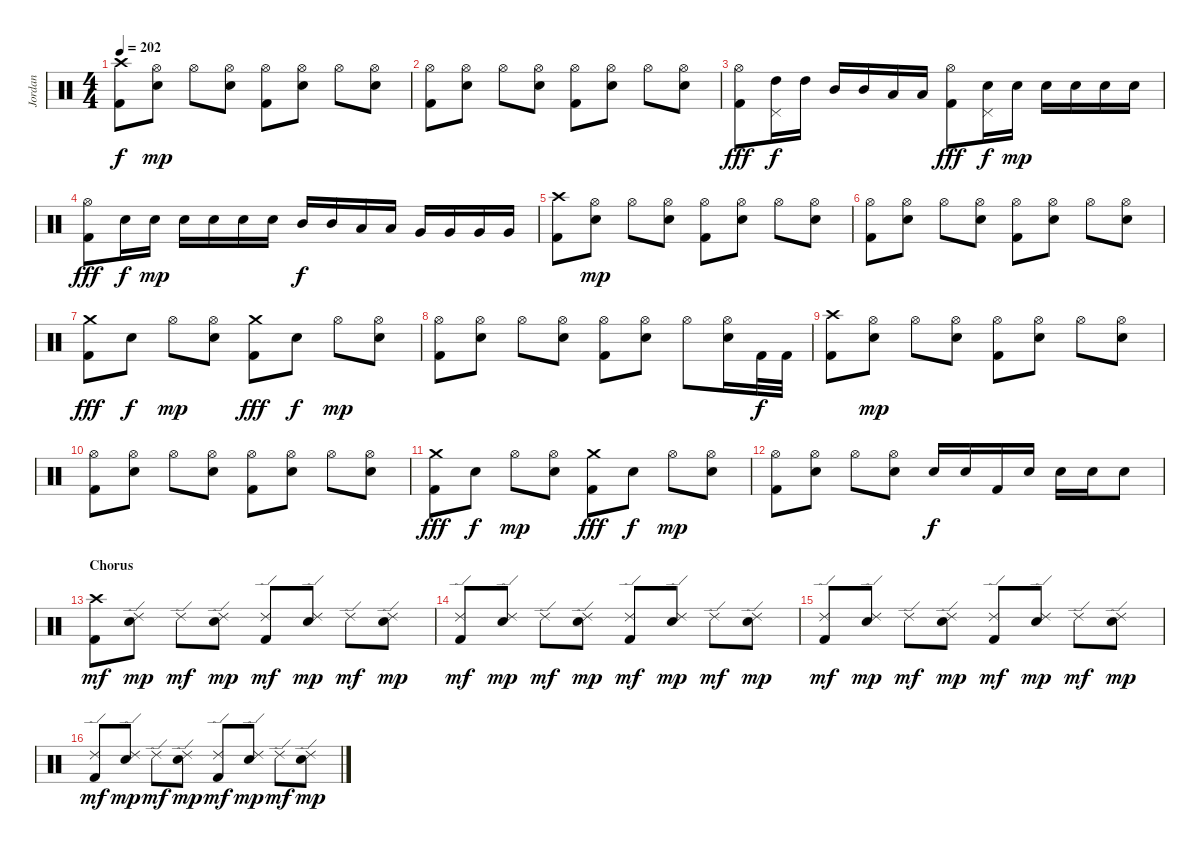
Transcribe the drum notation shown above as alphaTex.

\track ("Jordan" "Jordan") {instrument percussion}
\staff {score}
\articulation defaults
\ts (4 4)
\tempo 202
\clef neutral
\ks c
("Crash high (hit)" "Kick (hit) 2").8{dy f} ("Hi-Hat (open)" "Electric Snare (hit)").8{dy mp} "Hi-Hat (open)".8 ("Hi-Hat (open)" "Electric Snare (hit)").8 ("Hi-Hat (open)" "Kick (hit) 2").8 ("Hi-Hat (open)" "Electric Snare (hit)").8 "Hi-Hat (open)".8 ("Hi-Hat (open)" "Electric Snare (hit)").8 |
("Hi-Hat (open)" "Kick (hit) 2").8 ("Hi-Hat (open)" "Electric Snare (hit)").8 "Hi-Hat (open)".8 ("Hi-Hat (open)" "Electric Snare (hit)").8 ("Hi-Hat (open)" "Kick (hit) 2").8 ("Hi-Hat (open)" "Electric Snare (hit)").8 "Hi-Hat (open)".8 ("Hi-Hat (open)" "Electric Snare (hit)").8 |
("Hi-Hat (open)" "Kick (hit) 2").8{dy fff} ("High Tom (hit)" "Pedal Hi-Hat (hit)").16{dy f} "High Tom (hit)".16 "Mid Tom (hit)".16 "Mid Tom (hit)".16 "Low Tom (hit)".16 "Low Tom (hit)".16 ("Hi-Hat (open)" "Kick (hit) 2").8{dy fff} ("Electric Snare (hit)" "Pedal Hi-Hat (hit)").16{dy f} "Electric Snare (hit)".16{dy mp} "Electric Snare (hit)".16 "Electric Snare (hit)".16 "Electric Snare (hit)".16 "Electric Snare (hit)".16 |
("Hi-Hat (open)" "Kick (hit) 2").8{dy fff} "Electric Snare (hit)".16{dy f} "Electric Snare (hit)".16{dy mp} "Electric Snare (hit)".16 "Electric Snare (hit)".16 "Electric Snare (hit)".16 "Electric Snare (hit)".16 "Mid Tom (hit)".16{dy f} "Mid Tom (hit)".16 "Low Tom (hit)".16 "Low Tom (hit)".16 "Very Low Tom (hit)".16 "Very Low Tom (hit)".16 "Very Low Tom (hit)".16 "Very Low Tom (hit)".16 |
("Crash high (hit)" "Kick (hit) 2").8 ("Hi-Hat (open)" "Electric Snare (hit)").8{dy mp} "Hi-Hat (open)".8 ("Hi-Hat (open)" "Electric Snare (hit)").8 ("Hi-Hat (open)" "Kick (hit) 2").8 ("Hi-Hat (open)" "Electric Snare (hit)").8 "Hi-Hat (open)".8 ("Hi-Hat (open)" "Electric Snare (hit)").8 |
("Hi-Hat (open)" "Kick (hit) 2").8 ("Hi-Hat (open)" "Electric Snare (hit)").8 "Hi-Hat (open)".8 ("Hi-Hat (open)" "Electric Snare (hit)").8 ("Hi-Hat (open)" "Kick (hit) 2").8 ("Hi-Hat (open)" "Electric Snare (hit)").8 "Hi-Hat (open)".8 ("Hi-Hat (open)" "Electric Snare (hit)").8 |
("Crash medium (hit)" "Kick (hit) 2").8{dy fff} "Electric Snare (hit)".8{dy f} "Hi-Hat (open)".8{dy mp} ("Hi-Hat (open)" "Electric Snare (hit)").8 ("Crash medium (hit)" "Kick (hit) 2").8{dy fff} "Electric Snare (hit)".8{dy f} "Hi-Hat (open)".8{dy mp} ("Hi-Hat (open)" "Electric Snare (hit)").8 |
("Hi-Hat (open)" "Kick (hit) 2").8 ("Hi-Hat (open)" "Electric Snare (hit)").8 "Hi-Hat (open)".8 ("Hi-Hat (open)" "Electric Snare (hit)").8 ("Hi-Hat (open)" "Kick (hit) 2").8 ("Hi-Hat (open)" "Electric Snare (hit)").8 "Hi-Hat (open)".8 ("Hi-Hat (open)" "Electric Snare (hit)").16 "Kick (hit) 2".32{dy f} "Kick (hit) 2".32 |
("Crash high (hit)" "Kick (hit) 2").8 ("Hi-Hat (open)" "Electric Snare (hit)").8{dy mp} "Hi-Hat (open)".8 ("Hi-Hat (open)" "Electric Snare (hit)").8 ("Hi-Hat (open)" "Kick (hit) 2").8 ("Hi-Hat (open)" "Electric Snare (hit)").8 "Hi-Hat (open)".8 ("Hi-Hat (open)" "Electric Snare (hit)").8 |
("Hi-Hat (open)" "Kick (hit) 2").8 ("Hi-Hat (open)" "Electric Snare (hit)").8 "Hi-Hat (open)".8 ("Hi-Hat (open)" "Electric Snare (hit)").8 ("Hi-Hat (open)" "Kick (hit) 2").8 ("Hi-Hat (open)" "Electric Snare (hit)").8 "Hi-Hat (open)".8 ("Hi-Hat (open)" "Electric Snare (hit)").8 |
("Crash medium (hit)" "Kick (hit) 2").8{dy fff} "Electric Snare (hit)".8{dy f} "Hi-Hat (open)".8{dy mp} ("Hi-Hat (open)" "Electric Snare (hit)").8 ("Crash medium (hit)" "Kick (hit) 2").8{dy fff} "Electric Snare (hit)".8{dy f} "Hi-Hat (open)".8{dy mp} ("Hi-Hat (open)" "Electric Snare (hit)").8 |
("Hi-Hat (open)" "Kick (hit) 2").8 ("Hi-Hat (open)" "Electric Snare (hit)").8 "Hi-Hat (open)".8 ("Hi-Hat (open)" "Electric Snare (hit)").8 "Electric Snare (hit)".16{dy f} "Electric Snare (hit)".16 "Kick (hit) 2".16 "Electric Snare (hit)".16 "Electric Snare (hit)".16 "Electric Snare (hit)".16 "Electric Snare (hit)".8 |
\section ("" "Chorus")
("Crash high (hit)" "Kick (hit) 2").8{dy mf} ("Ride (edge) 2" "Electric Snare (hit)").8{dy mp} "Ride (edge) 2".8{dy mf} ("Ride (edge) 2" "Electric Snare (hit)").8{dy mp} ("Ride (edge) 2" "Kick (hit) 2").8{dy mf} ("Ride (edge) 2" "Electric Snare (hit)").8{dy mp} "Ride (edge) 2".8{dy mf} ("Ride (edge) 2" "Electric Snare (hit)").8{dy mp} |
("Ride (edge) 2" "Kick (hit) 2").8{dy mf} ("Ride (edge) 2" "Electric Snare (hit)").8{dy mp} "Ride (edge) 2".8{dy mf} ("Ride (edge) 2" "Electric Snare (hit)").8{dy mp} ("Ride (edge) 2" "Kick (hit) 2").8{dy mf} ("Ride (edge) 2" "Electric Snare (hit)").8{dy mp} "Ride (edge) 2".8{dy mf} ("Ride (edge) 2" "Electric Snare (hit)").8{dy mp} |
("Ride (edge) 2" "Kick (hit) 2").8{dy mf} ("Ride (edge) 2" "Electric Snare (hit)").8{dy mp} "Ride (edge) 2".8{dy mf} ("Ride (edge) 2" "Electric Snare (hit)").8{dy mp} ("Ride (edge) 2" "Kick (hit) 2").8{dy mf} ("Ride (edge) 2" "Electric Snare (hit)").8{dy mp} "Ride (edge) 2".8{dy mf} ("Ride (edge) 2" "Electric Snare (hit)").8{dy mp} |
("Ride (edge) 2" "Kick (hit) 2").8{dy mf} ("Ride (edge) 2" "Electric Snare (hit)").8{dy mp} "Ride (edge) 2".8{dy mf} ("Ride (edge) 2" "Electric Snare (hit)").8{dy mp} ("Ride (edge) 2" "Kick (hit) 2").8{dy mf} ("Ride (edge) 2" "Electric Snare (hit)").8{dy mp} "Ride (edge) 2".8{dy mf} ("Ride (edge) 2" "Electric Snare (hit)").8{dy mp}
